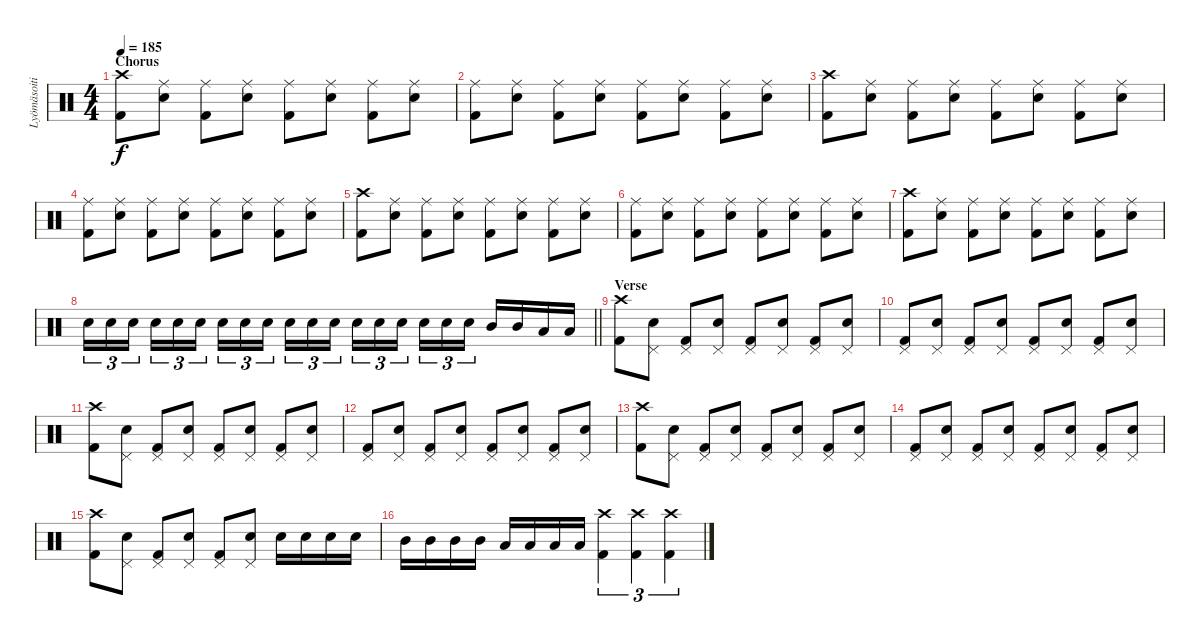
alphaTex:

\track ("Lyömäsoitin" "Lyömäsoiti") {instrument percussion}
\staff {score}
\articulation defaults
\ts (4 4)
\section ("" "Chorus")
\tempo 185
\clef neutral
\ks c
("Crash high (hit)" "Kick (hit) 2").8{dy f} ("Ride (middle)" "Electric Snare (hit)").8 ("Ride (middle)" "Kick (hit) 2").8 ("Ride (middle)" "Electric Snare (hit)").8 ("Ride (middle)" "Kick (hit) 2").8 ("Ride (middle)" "Electric Snare (hit)").8 ("Ride (middle)" "Kick (hit) 2").8 ("Ride (middle)" "Electric Snare (hit)").8 |
("Ride (middle)" "Kick (hit) 2").8 ("Ride (middle)" "Electric Snare (hit)").8 ("Ride (middle)" "Kick (hit) 2").8 ("Ride (middle)" "Electric Snare (hit)").8 ("Ride (middle)" "Kick (hit) 2").8 ("Ride (middle)" "Electric Snare (hit)").8 ("Ride (middle)" "Kick (hit) 2").8 ("Ride (middle)" "Electric Snare (hit)").8 |
("Crash high (hit)" "Kick (hit) 2").8 ("Ride (middle)" "Electric Snare (hit)").8 ("Ride (middle)" "Kick (hit) 2").8 ("Ride (middle)" "Electric Snare (hit)").8 ("Ride (middle)" "Kick (hit) 2").8 ("Ride (middle)" "Electric Snare (hit)").8 ("Ride (middle)" "Kick (hit) 2").8 ("Ride (middle)" "Electric Snare (hit)").8 |
("Ride (middle)" "Kick (hit) 2").8 ("Ride (middle)" "Electric Snare (hit)").8 ("Ride (middle)" "Kick (hit) 2").8 ("Ride (middle)" "Electric Snare (hit)").8 ("Ride (middle)" "Kick (hit) 2").8 ("Ride (middle)" "Electric Snare (hit)").8 ("Ride (middle)" "Kick (hit) 2").8 ("Ride (middle)" "Electric Snare (hit)").8 |
("Crash high (hit)" "Kick (hit) 2").8 ("Ride (middle)" "Electric Snare (hit)").8 ("Ride (middle)" "Kick (hit) 2").8 ("Ride (middle)" "Electric Snare (hit)").8 ("Ride (middle)" "Kick (hit) 2").8 ("Ride (middle)" "Electric Snare (hit)").8 ("Ride (middle)" "Kick (hit) 2").8 ("Ride (middle)" "Electric Snare (hit)").8 |
("Ride (middle)" "Kick (hit) 2").8 ("Ride (middle)" "Electric Snare (hit)").8 ("Ride (middle)" "Kick (hit) 2").8 ("Ride (middle)" "Electric Snare (hit)").8 ("Ride (middle)" "Kick (hit) 2").8 ("Ride (middle)" "Electric Snare (hit)").8 ("Ride (middle)" "Kick (hit) 2").8 ("Ride (middle)" "Electric Snare (hit)").8 |
("Crash high (hit)" "Kick (hit) 2").8 ("Ride (middle)" "Electric Snare (hit)").8 ("Ride (middle)" "Kick (hit) 2").8 ("Ride (middle)" "Electric Snare (hit)").8 ("Ride (middle)" "Kick (hit) 2").8 ("Ride (middle)" "Electric Snare (hit)").8 ("Ride (middle)" "Kick (hit) 2").8 ("Ride (middle)" "Electric Snare (hit)").8 |
\barLineRight lightlight "Electric Snare (hit)".16{tu (3 2)} "Electric Snare (hit)".16{tu (3 2)} "Electric Snare (hit)".16{tu (3 2) beam splitsecondary} "Electric Snare (hit)".16{tu (3 2)} "Electric Snare (hit)".16{tu (3 2)} "Electric Snare (hit)".16{tu (3 2)} "Electric Snare (hit)".16{tu (3 2)} "Electric Snare (hit)".16{tu (3 2)} "Electric Snare (hit)".16{tu (3 2) beam splitsecondary} "Electric Snare (hit)".16{tu (3 2)} "Electric Snare (hit)".16{tu (3 2)} "Electric Snare (hit)".16{tu (3 2)} "Electric Snare (hit)".16{tu (3 2)} "Electric Snare (hit)".16{tu (3 2)} "Electric Snare (hit)".16{tu (3 2) beam splitsecondary} "Electric Snare (hit)".16{tu (3 2)} "Electric Snare (hit)".16{tu (3 2)} "Electric Snare (hit)".16{tu (3 2)} "Mid Tom (hit)".16 "Mid Tom (hit)".16 "Low Tom (hit)".16 "Low Tom (hit)".16
|
\section ("" "Verse")
("Crash high (hit)" "Kick (hit) 2").8 ("Pedal Hi-Hat (hit)" "Electric Snare (hit)").8 ("Pedal Hi-Hat (hit)" "Kick (hit) 2").8 ("Pedal Hi-Hat (hit)" "Electric Snare (hit)").8 ("Pedal Hi-Hat (hit)" "Kick (hit) 2").8 ("Pedal Hi-Hat (hit)" "Electric Snare (hit)").8 ("Pedal Hi-Hat (hit)" "Kick (hit) 2").8 ("Pedal Hi-Hat (hit)" "Electric Snare (hit)").8 |
("Pedal Hi-Hat (hit)" "Kick (hit) 2").8 ("Pedal Hi-Hat (hit)" "Electric Snare (hit)").8 ("Pedal Hi-Hat (hit)" "Kick (hit) 2").8 ("Pedal Hi-Hat (hit)" "Electric Snare (hit)").8 ("Pedal Hi-Hat (hit)" "Kick (hit) 2").8 ("Pedal Hi-Hat (hit)" "Electric Snare (hit)").8 ("Pedal Hi-Hat (hit)" "Kick (hit) 2").8 ("Pedal Hi-Hat (hit)" "Electric Snare (hit)").8 |
("Crash high (hit)" "Kick (hit) 2").8 ("Pedal Hi-Hat (hit)" "Electric Snare (hit)").8 ("Pedal Hi-Hat (hit)" "Kick (hit) 2").8 ("Pedal Hi-Hat (hit)" "Electric Snare (hit)").8 ("Pedal Hi-Hat (hit)" "Kick (hit) 2").8 ("Pedal Hi-Hat (hit)" "Electric Snare (hit)").8 ("Pedal Hi-Hat (hit)" "Kick (hit) 2").8 ("Pedal Hi-Hat (hit)" "Electric Snare (hit)").8 |
("Pedal Hi-Hat (hit)" "Kick (hit) 2").8 ("Pedal Hi-Hat (hit)" "Electric Snare (hit)").8 ("Pedal Hi-Hat (hit)" "Kick (hit) 2").8 ("Pedal Hi-Hat (hit)" "Electric Snare (hit)").8 ("Pedal Hi-Hat (hit)" "Kick (hit) 2").8 ("Pedal Hi-Hat (hit)" "Electric Snare (hit)").8 ("Pedal Hi-Hat (hit)" "Kick (hit) 2").8 ("Pedal Hi-Hat (hit)" "Electric Snare (hit)").8 |
("Crash high (hit)" "Kick (hit) 2").8 ("Pedal Hi-Hat (hit)" "Electric Snare (hit)").8 ("Pedal Hi-Hat (hit)" "Kick (hit) 2").8 ("Pedal Hi-Hat (hit)" "Electric Snare (hit)").8 ("Pedal Hi-Hat (hit)" "Kick (hit) 2").8 ("Pedal Hi-Hat (hit)" "Electric Snare (hit)").8 ("Pedal Hi-Hat (hit)" "Kick (hit) 2").8 ("Pedal Hi-Hat (hit)" "Electric Snare (hit)").8 |
("Pedal Hi-Hat (hit)" "Kick (hit) 2").8 ("Pedal Hi-Hat (hit)" "Electric Snare (hit)").8 ("Pedal Hi-Hat (hit)" "Kick (hit) 2").8 ("Pedal Hi-Hat (hit)" "Electric Snare (hit)").8 ("Pedal Hi-Hat (hit)" "Kick (hit) 2").8 ("Pedal Hi-Hat (hit)" "Electric Snare (hit)").8 ("Pedal Hi-Hat (hit)" "Kick (hit) 2").8 ("Pedal Hi-Hat (hit)" "Electric Snare (hit)").8 |
("Crash high (hit)" "Kick (hit) 2").8 ("Pedal Hi-Hat (hit)" "Electric Snare (hit)").8 ("Pedal Hi-Hat (hit)" "Kick (hit) 2").8 ("Pedal Hi-Hat (hit)" "Electric Snare (hit)").8 ("Pedal Hi-Hat (hit)" "Kick (hit) 2").8 ("Pedal Hi-Hat (hit)" "Electric Snare (hit)").8 "Electric Snare (hit)".16 "Electric Snare (hit)".16 "Electric Snare (hit)".16 "Electric Snare (hit)".16 |
"Mid Tom (hit)".16 "Mid Tom (hit)".16 "Mid Tom (hit)".16 "Mid Tom (hit)".16 "Low Tom (hit)".16 "Low Tom (hit)".16 "Low Tom (hit)".16 "Low Tom (hit)".16 ("Crash high (hit)" "Kick (hit) 2").4{tu (3 2)} ("Crash high (hit)" "Kick (hit) 2").4{tu (3 2)} ("Crash high (hit)" "Kick (hit) 2").4{tu (3 2)}
